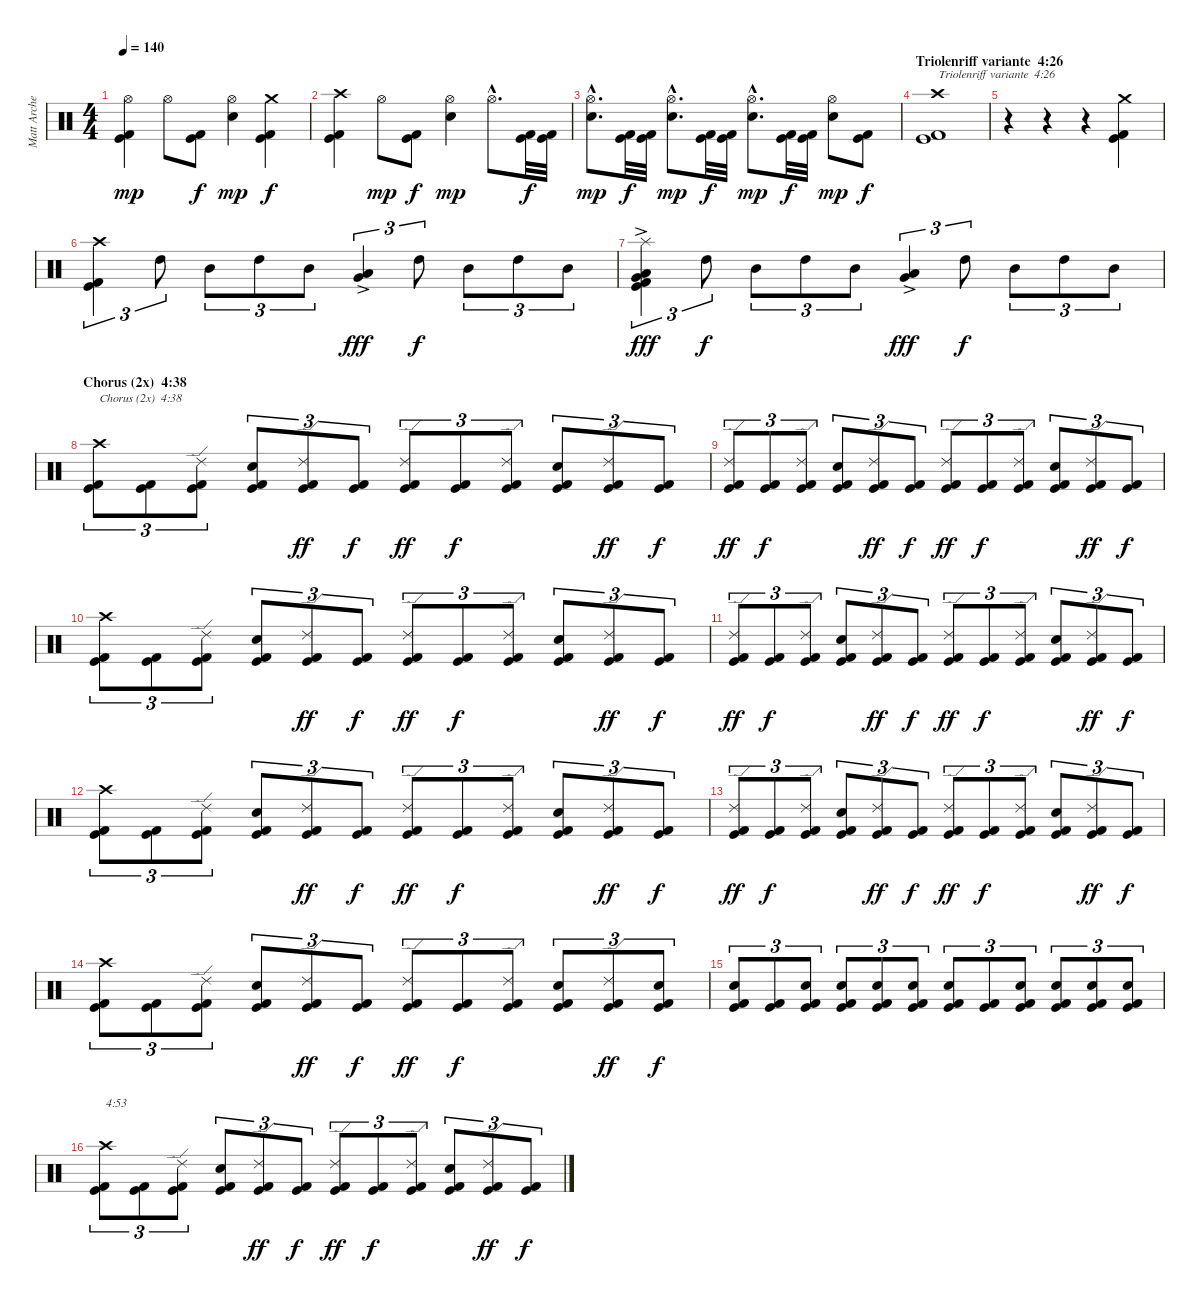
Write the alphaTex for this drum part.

\track ("Matt Archer" "Matt Arche") {instrument percussion}
\staff {score}
\articulation defaults
\ts (4 4)
\tempo 140
\clef neutral
\ks c
("Kick (hit)" "Kick (hit) 2" "Hi-Hat (open)").4{dy mp} "Hi-Hat (open)".8 ("Kick (hit)" "Kick (hit) 2").8{dy f} ("Electric Snare (hit)" "Hi-Hat (open)").4{dy mp} ("Kick (hit)" "Kick (hit) 2" "Crash medium (hit)").4{dy f} |
("Kick (hit)" "Kick (hit) 2" "Crash high (hit)").4 "Hi-Hat (open)".8{dy mp} ("Kick (hit)" "Kick (hit) 2").8{dy f} ("Electric Snare (hit)" "Hi-Hat (open)").4{dy mp} "Hi-Hat (open)"{hac}.8{d} ("Kick (hit)" "Kick (hit) 2").32{dy f} ("Kick (hit)" "Kick (hit) 2").32 |
("Electric Snare (hit)"{hac} "Hi-Hat (open)"{hac}).8{d dy mp} ("Kick (hit)" "Kick (hit) 2").32{dy f} ("Kick (hit)" "Kick (hit) 2").32 ("Electric Snare (hit)"{hac} "Hi-Hat (open)"{hac}).8{d dy mp} ("Kick (hit)" "Kick (hit) 2").32{dy f} ("Kick (hit)" "Kick (hit) 2").32 ("Electric Snare (hit)"{hac} "Hi-Hat (open)"{hac}).8{d dy mp} ("Kick (hit)" "Kick (hit) 2").32{dy f} ("Kick (hit)" "Kick (hit) 2").32 ("Electric Snare (hit)" "Hi-Hat (open)").8{dy mp} ("Kick (hit)" "Kick (hit) 2").8{dy f} |
\section ("" "Triolenriff variante  4:26")
("Kick (hit)" "Kick (hit) 2" "Crash high (hit)").1{txt "Triolenriff variante  4:26"} |
r.4 r.4 r.4 ("Kick (hit)" "Kick (hit) 2" "Crash medium (hit)").4 |
("Kick (hit)" "Kick (hit) 2" "Crash high (hit)").4{tu (3 2)} "High Tom (hit)".8{tu (3 2)} "Mid Tom (hit)".8{tu (3 2)} "High Tom (hit)".8{tu (3 2)} "Mid Tom (hit)".8{tu (3 2)} ("Very Low Tom (hit)"{ac} "Low Tom (hit)"{ac}).4{tu (3 2) dy fff} "High Tom (hit)".8{tu (3 2) dy f} "Mid Tom (hit)".8{tu (3 2)} "High Tom (hit)".8{tu (3 2)} "Mid Tom (hit)".8{tu (3 2)} |
("Kick (hit)" "Kick (hit) 2" "Low Tom (hit)"{ac} "Very Low Tom (hit)"{ac} "Splash (hit)"{ac}).4{tu (3 2) dy fff} "High Tom (hit)".8{tu (3 2) dy f} "Mid Tom (hit)".8{tu (3 2)} "High Tom (hit)".8{tu (3 2)} "Mid Tom (hit)".8{tu (3 2)} ("Very Low Tom (hit)"{ac} "Low Tom (hit)"{ac}).4{tu (3 2) dy fff} "High Tom (hit)".8{tu (3 2) dy f} "Mid Tom (hit)".8{tu (3 2)} "High Tom (hit)".8{tu (3 2)} "Mid Tom (hit)".8{tu (3 2)} |
\section ("" "Chorus (2x)  4:38")
("Kick (hit)" "Kick (hit) 2" "Crash high (hit)").8{tu (3 2) txt "Chorus (2x)  4:38"} ("Kick (hit)" "Kick (hit) 2").8{tu (3 2)} ("Kick (hit)" "Kick (hit) 2" "Ride (edge) 2").8{tu (3 2)} ("Kick (hit)" "Kick (hit) 2" "Electric Snare (hit)").8{tu (3 2)} ("Kick (hit)" "Kick (hit) 2" "Ride (edge) 2").8{tu (3 2) dy ff} ("Kick (hit)" "Kick (hit) 2").8{tu (3 2) dy f} ("Kick (hit)" "Kick (hit) 2" "Ride (edge) 2").8{tu (3 2) dy ff} ("Kick (hit)" "Kick (hit) 2").8{tu (3 2) dy f} ("Kick (hit)" "Kick (hit) 2" "Ride (edge) 2").8{tu (3 2)} ("Kick (hit)" "Kick (hit) 2" "Electric Snare (hit)").8{tu (3 2)} ("Kick (hit)" "Kick (hit) 2" "Ride (edge) 2").8{tu (3 2) dy ff} ("Kick (hit)" "Kick (hit) 2").8{tu (3 2) dy f} |
("Kick (hit)" "Kick (hit) 2" "Ride (edge) 2").8{tu (3 2) dy ff} ("Kick (hit)" "Kick (hit) 2").8{tu (3 2) dy f} ("Kick (hit)" "Kick (hit) 2" "Ride (edge) 2").8{tu (3 2)} ("Kick (hit)" "Kick (hit) 2" "Electric Snare (hit)").8{tu (3 2)} ("Kick (hit)" "Kick (hit) 2" "Ride (edge) 2").8{tu (3 2) dy ff} ("Kick (hit)" "Kick (hit) 2").8{tu (3 2) dy f} ("Kick (hit)" "Kick (hit) 2" "Ride (edge) 2").8{tu (3 2) dy ff} ("Kick (hit)" "Kick (hit) 2").8{tu (3 2) dy f} ("Kick (hit)" "Kick (hit) 2" "Ride (edge) 2").8{tu (3 2)} ("Kick (hit)" "Kick (hit) 2" "Electric Snare (hit)").8{tu (3 2)} ("Kick (hit)" "Kick (hit) 2" "Ride (edge) 2").8{tu (3 2) dy ff} ("Kick (hit)" "Kick (hit) 2").8{tu (3 2) dy f} |
("Kick (hit)" "Kick (hit) 2" "Crash high (hit)").8{tu (3 2)} ("Kick (hit)" "Kick (hit) 2").8{tu (3 2)} ("Kick (hit)" "Kick (hit) 2" "Ride (edge) 2").8{tu (3 2)} ("Kick (hit)" "Kick (hit) 2" "Electric Snare (hit)").8{tu (3 2)} ("Kick (hit)" "Kick (hit) 2" "Ride (edge) 2").8{tu (3 2) dy ff} ("Kick (hit)" "Kick (hit) 2").8{tu (3 2) dy f} ("Kick (hit)" "Kick (hit) 2" "Ride (edge) 2").8{tu (3 2) dy ff} ("Kick (hit)" "Kick (hit) 2").8{tu (3 2) dy f} ("Kick (hit)" "Kick (hit) 2" "Ride (edge) 2").8{tu (3 2)} ("Kick (hit)" "Kick (hit) 2" "Electric Snare (hit)").8{tu (3 2)} ("Kick (hit)" "Kick (hit) 2" "Ride (edge) 2").8{tu (3 2) dy ff} ("Kick (hit)" "Kick (hit) 2").8{tu (3 2) dy f} |
("Kick (hit)" "Kick (hit) 2" "Ride (edge) 2").8{tu (3 2) dy ff} ("Kick (hit)" "Kick (hit) 2").8{tu (3 2) dy f} ("Kick (hit)" "Kick (hit) 2" "Ride (edge) 2").8{tu (3 2)} ("Kick (hit)" "Kick (hit) 2" "Electric Snare (hit)").8{tu (3 2)} ("Kick (hit)" "Kick (hit) 2" "Ride (edge) 2").8{tu (3 2) dy ff} ("Kick (hit)" "Kick (hit) 2").8{tu (3 2) dy f} ("Kick (hit)" "Kick (hit) 2" "Ride (edge) 2").8{tu (3 2) dy ff} ("Kick (hit)" "Kick (hit) 2").8{tu (3 2) dy f} ("Kick (hit)" "Kick (hit) 2" "Ride (edge) 2").8{tu (3 2)} ("Kick (hit)" "Kick (hit) 2" "Electric Snare (hit)").8{tu (3 2)} ("Kick (hit)" "Kick (hit) 2" "Ride (edge) 2").8{tu (3 2) dy ff} ("Kick (hit)" "Kick (hit) 2").8{tu (3 2) dy f} |
("Kick (hit)" "Kick (hit) 2" "Crash high (hit)").8{tu (3 2)} ("Kick (hit)" "Kick (hit) 2").8{tu (3 2)} ("Kick (hit)" "Kick (hit) 2" "Ride (edge) 2").8{tu (3 2)} ("Kick (hit)" "Kick (hit) 2" "Electric Snare (hit)").8{tu (3 2)} ("Kick (hit)" "Kick (hit) 2" "Ride (edge) 2").8{tu (3 2) dy ff} ("Kick (hit)" "Kick (hit) 2").8{tu (3 2) dy f} ("Kick (hit)" "Kick (hit) 2" "Ride (edge) 2").8{tu (3 2) dy ff} ("Kick (hit)" "Kick (hit) 2").8{tu (3 2) dy f} ("Kick (hit)" "Kick (hit) 2" "Ride (edge) 2").8{tu (3 2)} ("Kick (hit)" "Kick (hit) 2" "Electric Snare (hit)").8{tu (3 2)} ("Kick (hit)" "Kick (hit) 2" "Ride (edge) 2").8{tu (3 2) dy ff} ("Kick (hit)" "Kick (hit) 2").8{tu (3 2) dy f} |
("Kick (hit)" "Kick (hit) 2" "Ride (edge) 2").8{tu (3 2) dy ff} ("Kick (hit)" "Kick (hit) 2").8{tu (3 2) dy f} ("Kick (hit)" "Kick (hit) 2" "Ride (edge) 2").8{tu (3 2)} ("Kick (hit)" "Kick (hit) 2" "Electric Snare (hit)").8{tu (3 2)} ("Kick (hit)" "Kick (hit) 2" "Ride (edge) 2").8{tu (3 2) dy ff} ("Kick (hit)" "Kick (hit) 2").8{tu (3 2) dy f} ("Kick (hit)" "Kick (hit) 2" "Ride (edge) 2").8{tu (3 2) dy ff} ("Kick (hit)" "Kick (hit) 2").8{tu (3 2) dy f} ("Kick (hit)" "Kick (hit) 2" "Ride (edge) 2").8{tu (3 2)} ("Kick (hit)" "Kick (hit) 2" "Electric Snare (hit)").8{tu (3 2)} ("Kick (hit)" "Kick (hit) 2" "Ride (edge) 2").8{tu (3 2) dy ff} ("Kick (hit)" "Kick (hit) 2").8{tu (3 2) dy f} |
("Kick (hit)" "Kick (hit) 2" "Crash high (hit)").8{tu (3 2)} ("Kick (hit)" "Kick (hit) 2").8{tu (3 2)} ("Kick (hit)" "Kick (hit) 2" "Ride (edge) 2").8{tu (3 2)} ("Kick (hit)" "Kick (hit) 2" "Electric Snare (hit)").8{tu (3 2)} ("Kick (hit)" "Kick (hit) 2" "Ride (edge) 2").8{tu (3 2) dy ff} ("Kick (hit)" "Kick (hit) 2").8{tu (3 2) dy f} ("Kick (hit)" "Kick (hit) 2" "Ride (edge) 2").8{tu (3 2) dy ff} ("Kick (hit)" "Kick (hit) 2").8{tu (3 2) dy f} ("Kick (hit)" "Kick (hit) 2" "Ride (edge) 2").8{tu (3 2)} ("Kick (hit)" "Kick (hit) 2" "Electric Snare (hit)").8{tu (3 2)} ("Kick (hit)" "Kick (hit) 2" "Ride (edge) 2").8{tu (3 2) dy ff} ("Kick (hit)" "Kick (hit) 2" "Electric Snare (hit)").8{tu (3 2) dy f} |
("Kick (hit)" "Kick (hit) 2" "Electric Snare (hit)").8{tu (3 2)} ("Kick (hit)" "Kick (hit) 2").8{tu (3 2)} ("Kick (hit)" "Kick (hit) 2" "Electric Snare (hit)").8{tu (3 2)} ("Kick (hit)" "Kick (hit) 2" "Electric Snare (hit)").8{tu (3 2)} ("Kick (hit)" "Kick (hit) 2" "Electric Snare (hit)").8{tu (3 2)} ("Kick (hit)" "Kick (hit) 2" "Electric Snare (hit)").8{tu (3 2)} ("Kick (hit)" "Kick (hit) 2" "Electric Snare (hit)").8{tu (3 2)} ("Kick (hit)" "Kick (hit) 2").8{tu (3 2)} ("Kick (hit)" "Kick (hit) 2" "Electric Snare (hit)").8{tu (3 2)} ("Kick (hit)" "Kick (hit) 2" "Electric Snare (hit)").8{tu (3 2)} ("Kick (hit)" "Kick (hit) 2" "Electric Snare (hit)").8{tu (3 2)} ("Kick (hit)" "Kick (hit) 2" "Electric Snare (hit)").8{tu (3 2)} |
("Kick (hit)" "Kick (hit) 2" "Crash high (hit)").8{tu (3 2) txt "4:53"} ("Kick (hit)" "Kick (hit) 2").8{tu (3 2)} ("Kick (hit)" "Kick (hit) 2" "Ride (edge) 2").8{tu (3 2)} ("Kick (hit)" "Kick (hit) 2" "Electric Snare (hit)").8{tu (3 2)} ("Kick (hit)" "Kick (hit) 2" "Ride (edge) 2").8{tu (3 2) dy ff} ("Kick (hit)" "Kick (hit) 2").8{tu (3 2) dy f} ("Kick (hit)" "Kick (hit) 2" "Ride (edge) 2").8{tu (3 2) dy ff} ("Kick (hit)" "Kick (hit) 2").8{tu (3 2) dy f} ("Kick (hit)" "Kick (hit) 2" "Ride (edge) 2").8{tu (3 2)} ("Kick (hit)" "Kick (hit) 2" "Electric Snare (hit)").8{tu (3 2)} ("Kick (hit)" "Kick (hit) 2" "Ride (edge) 2").8{tu (3 2) dy ff} ("Kick (hit)" "Kick (hit) 2").8{tu (3 2) dy f}
